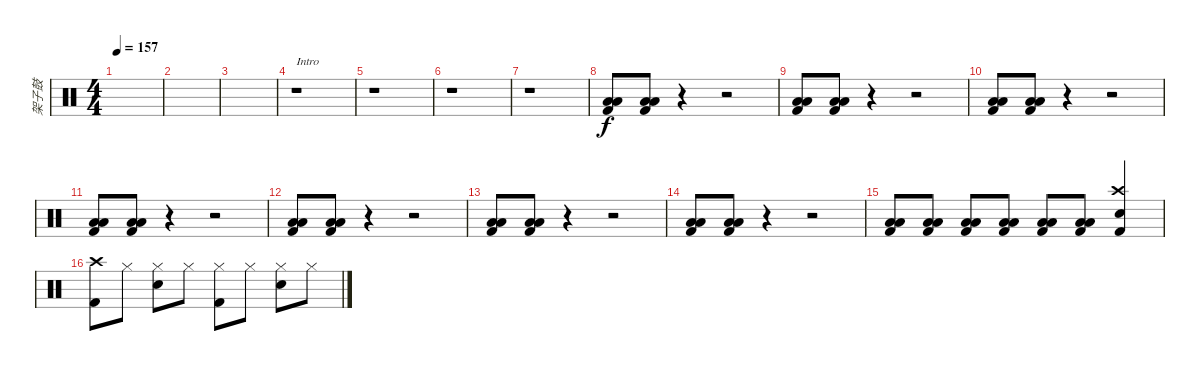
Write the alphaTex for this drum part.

\track ("架子鼓" "架子鼓") {instrument percussion}
\staff {score}
\articulation defaults
\ts (4 4)
\tempo 157
\clef neutral
\ks c
|
|
|
r.1{txt "Intro"} |
r.1 |
r.1 |
r.1 |
("Low Floor Tom (hit)" "Low Floor Tom (hit)" "Kick (hit) 2").8 ("Low Floor Tom (hit)" "Low Floor Tom (hit)" "Kick (hit) 2").8 r.4 r.2 |
("Low Floor Tom (hit)" "Low Floor Tom (hit)" "Kick (hit) 2").8 ("Low Floor Tom (hit)" "Low Floor Tom (hit)" "Kick (hit) 2").8 r.4 r.2 |
("Low Floor Tom (hit)" "Low Floor Tom (hit)" "Kick (hit) 2").8 ("Low Floor Tom (hit)" "Low Floor Tom (hit)" "Kick (hit) 2").8 r.4 r.2 |
("Low Floor Tom (hit)" "Low Floor Tom (hit)" "Kick (hit) 2").8 ("Low Floor Tom (hit)" "Low Floor Tom (hit)" "Kick (hit) 2").8 r.4 r.2 |
("Low Floor Tom (hit)" "Low Floor Tom (hit)" "Kick (hit) 2").8 ("Low Floor Tom (hit)" "Low Floor Tom (hit)" "Kick (hit) 2").8 r.4 r.2 |
("Low Floor Tom (hit)" "Low Floor Tom (hit)" "Kick (hit) 2").8 ("Low Floor Tom (hit)" "Low Floor Tom (hit)" "Kick (hit) 2").8 r.4 r.2 |
("Low Floor Tom (hit)" "Low Floor Tom (hit)" "Kick (hit) 2").8 ("Low Floor Tom (hit)" "Low Floor Tom (hit)" "Kick (hit) 2").8 r.4 r.2 |
("Low Floor Tom (hit)" "Low Floor Tom (hit)" "Kick (hit) 2").8 ("Low Floor Tom (hit)" "Low Floor Tom (hit)" "Kick (hit) 2").8 ("Low Floor Tom (hit)" "Low Floor Tom (hit)" "Kick (hit) 2").8 ("Low Floor Tom (hit)" "Low Floor Tom (hit)" "Kick (hit) 2").8 ("Low Floor Tom (hit)" "Low Floor Tom (hit)" "Kick (hit) 2").8 ("Low Floor Tom (hit)" "Low Floor Tom (hit)" "Kick (hit) 2").8 ("Crash high (hit)" "Snare (hit) 2" "Kick (hit) 2").4 |
("Crash high (hit)" "Kick (hit) 2").8 "Hi-Hat (closed)".8 ("Hi-Hat (closed)" "Snare (hit) 2").8 "Hi-Hat (closed)".8 ("Hi-Hat (closed)" "Kick (hit) 2").8 "Hi-Hat (closed)".8 ("Hi-Hat (closed)" "Snare (hit) 2").8 "Hi-Hat (closed)".8
